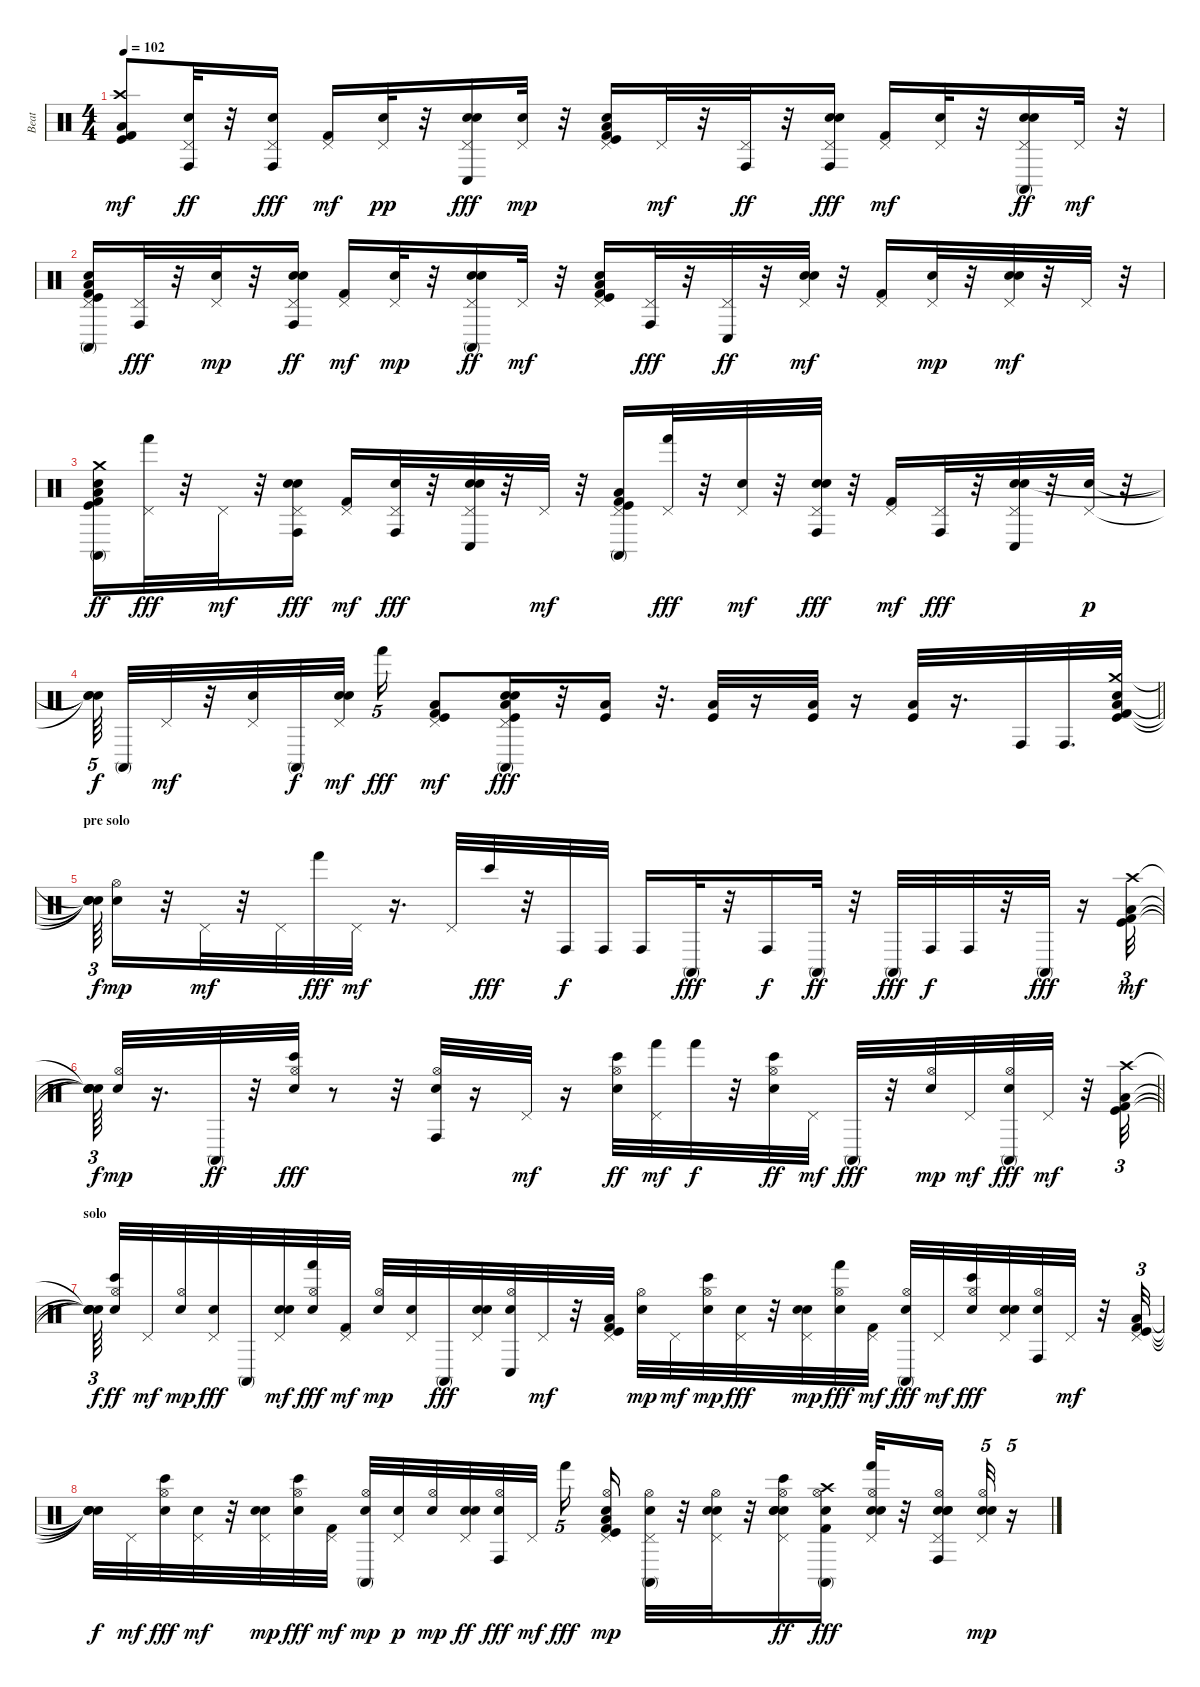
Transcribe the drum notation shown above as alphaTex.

\track ("Beat" "Beat") {instrument percussion}
\staff {score}
\articulation defaults
\ts (4 4)
\tempo 102
\clef neutral
\ks c
("Kick (hit) 2" "Kick (hit)" "Low Tom (hit)" "Crash high (hit)").8{dy mf} ("Pedal Hi-Hat (hit)" "Hand Clap (hit)" "Conga high (hit)").32{dy ff} r.32 ("Electric Snare (hit)" "Pedal Hi-Hat (hit)" "Conga high (hit)").16{dy fff} ("Kick (hit) 2" "Pedal Hi-Hat (hit)").16{dy mf} ("Pedal Hi-Hat (hit)" "Hand Clap (hit)").32{dy pp} r.32 ("Electric Snare (hit)" "Pedal Hi-Hat (hit)" "Hand Clap (hit)" "Conga low (hit)").16{dy fff} ("Pedal Hi-Hat (hit)" "Hand Clap (hit)").32{dy mp} r.32 ("Low Tom (hit)" "Kick (hit)" "Kick (hit) 2" "Pedal Hi-Hat (hit)" "Hand Clap (hit)").16 "Pedal Hi-Hat (hit)".32{dy mf} r.32 ("Pedal Hi-Hat (hit)" "Conga high (hit)").32{dy ff} r.32 ("Electric Snare (hit)" "Pedal Hi-Hat (hit)" "Hand Clap (hit)" "Conga high (hit)").16{dy fff} ("Kick (hit) 2" "Pedal Hi-Hat (hit)").16{dy mf} ("Pedal Hi-Hat (hit)" "Hand Clap (hit)").32 r.32 ("Electric Snare (hit)" "Pedal Hi-Hat (hit)" "Hand Clap (hit)" "Conga high (mute)").16{dy ff} "Pedal Hi-Hat (hit)".32{dy mf} r.32 |
("Low Tom (hit)" "Kick (hit)" "Kick (hit) 2" "Pedal Hi-Hat (hit)" "Hand Clap (hit)" "Conga high (mute)").16 ("Pedal Hi-Hat (hit)" "Conga high (hit)").32{dy fff} r.32 ("Pedal Hi-Hat (hit)" "Hand Clap (hit)").32{dy mp} r.32 ("Electric Snare (hit)" "Pedal Hi-Hat (hit)" "Hand Clap (hit)" "Conga high (hit)").16{dy ff} ("Kick (hit) 2" "Pedal Hi-Hat (hit)").16{dy mf} ("Pedal Hi-Hat (hit)" "Hand Clap (hit)").32{dy mp} r.32 ("Electric Snare (hit)" "Pedal Hi-Hat (hit)" "Hand Clap (hit)" "Conga high (mute)").16{dy ff} "Pedal Hi-Hat (hit)".32{dy mf} r.32 ("Low Tom (hit)" "Kick (hit)" "Kick (hit) 2" "Pedal Hi-Hat (hit)" "Hand Clap (hit)").16 ("Pedal Hi-Hat (hit)" "Conga high (hit)").32{dy fff} r.32 ("Pedal Hi-Hat (hit)" "Conga low (hit)").32{dy ff} r.32 ("Electric Snare (hit)" "Pedal Hi-Hat (hit)" "Hand Clap (hit)").32{dy mf} r.32 ("Kick (hit) 2" "Pedal Hi-Hat (hit)").16 ("Pedal Hi-Hat (hit)" "Hand Clap (hit)").32{dy mp} r.32 ("Electric Snare (hit)" "Pedal Hi-Hat (hit)" "Hand Clap (hit)").32{dy mf} r.32 "Pedal Hi-Hat (hit)".32 r.32 |
("Low Tom (hit)" "Kick (hit)" "Kick (hit) 2" "Crash medium (hit)" "Hand Clap (hit)" "Conga high (mute)").16{dy ff} ("Pedal Hi-Hat (hit)" "Hand (hit)").32{dy fff} r.32 "Pedal Hi-Hat (hit)".32{dy mf} r.32 ("Electric Snare (hit)" "Pedal Hi-Hat (hit)" "Hand Clap (hit)" "Conga high (hit)").16{dy fff} ("Kick (hit) 2" "Pedal Hi-Hat (hit)").16{dy mf} ("Pedal Hi-Hat (hit)" "Hand Clap (hit)" "Conga high (hit)").32{dy fff} r.32 ("Electric Snare (hit)" "Pedal Hi-Hat (hit)" "Hand Clap (hit)" "Conga low (hit)").32 r.32 "Pedal Hi-Hat (hit)".32{dy mf} r.32 ("Low Tom (hit)" "Kick (hit)" "Kick (hit) 2" "Pedal Hi-Hat (hit)" "Conga high (mute)").16 ("Pedal Hi-Hat (hit)" "Hand (hit)").32{dy fff} r.32 ("Pedal Hi-Hat (hit)" "Hand Clap (hit)").32{dy mf} r.32 ("Electric Snare (hit)" "Pedal Hi-Hat (hit)" "Hand Clap (hit)" "Conga high (hit)").32{dy fff} r.32 ("Kick (hit) 2" "Pedal Hi-Hat (hit)").16{dy mf} ("Pedal Hi-Hat (hit)" "Conga high (hit)").32{dy fff} r.32 ("Electric Snare (hit)" "Pedal Hi-Hat (hit)" "Hand Clap (hit)" "Conga low (hit)").32 r.32 ("Pedal Hi-Hat (hit)" "Hand Clap (hit)").32{dy p} r.32 |
\barLineRight lightlight
("Snare (hit)"{t} "Snare (hit)"{t} "Snare (hit)"{t}).64{tu (5 4) dy f beam splitsecondary} "Conga high (mute)".32 "Pedal Hi-Hat (hit)".32{dy mf} r.32 ("Pedal Hi-Hat (hit)" "Hand Clap (hit)").32 "Conga high (mute)".32{dy f} ("Electric Snare (hit)" "Pedal Hi-Hat (hit)" "Hand Clap (hit)").32{dy mf beam splitsecondary} "Hand (hit)".16{tu (5 4) dy fff} ("Kick (hit)" "Low Tom (hit)" "Kick (hit) 2" "Pedal Hi-Hat (hit)").8{dy mf} ("Kick (hit)" "Low Tom (hit)" "Electric Snare (hit)" "Pedal Hi-Hat (hit)" "Hand Clap (hit)" "Conga high (mute)").16{dy fff} r.32 ("Low Tom (hit)" "Kick (hit)").16 r.32{d} ("Low Tom (hit)" "Kick (hit)").32 r.16 ("Low Tom (hit)" "Kick (hit)").32 r.16 ("Low Tom (hit)" "Kick (hit)").32 r.16{d} "Conga high (hit)".32 "Conga high (hit)".32{d} ("Low Tom (hit)" "Kick (hit)" "Kick (hit) 2" "Crash medium (hit)" "Hand Clap (hit)").32 |
\section ("" "pre solo")
("Snare (hit)"{t} "Snare (hit)"{t} "Snare (hit)"{t} "Snare (hit)"{t}).64{tu (3 2) dy f volume 14} ("Hi-Hat (open)" "Metronome (bell)").16{dy mp} r.32 "Pedal Hi-Hat (hit)".32{dy mf} r.32 "Pedal Hi-Hat (hit)".32 "Hand (hit)".32{dy fff} "Pedal Hi-Hat (hit)".32{dy mf} r.16{d} "Pedal Hi-Hat (hit)".32 "Bongo High (hit)".32{dy fff} r.32 "Conga high (hit)".32{dy f} "Conga high (hit)".32 "Conga high (hit)".16 "Conga high (mute)".32{dy fff} r.32 "Conga high (hit)".16{dy f} "Conga high (mute)".32{dy ff} r.32 "Conga high (mute)".32{dy fff} "Conga high (hit)".32{dy f} "Conga high (hit)".32 r.32 "Conga high (mute)".32{dy fff} r.16 ("Low Tom (hit)" "Kick (hit)" "Kick (hit) 2" "Crash high (hit)").32{tu (3 2) dy mf} |
\barLineRight lightlight
("Snare (hit)"{t} "Snare (hit)"{t} "Snare (hit)"{t} "Snare (hit)"{t}).64{tu (3 2) dy f} ("Hi-Hat (open)" "Metronome (bell)").32{dy mp} r.16{d} "Conga high (mute)".32{dy ff} r.32 ("Hi-Hat (open)" "Metronome (bell)" "Bongo High (hit)").32{dy fff} r.8 r.32 ("Hi-Hat (open)" "Metronome (bell)" "Conga high (hit)").32 r.16 "Pedal Hi-Hat (hit)".32{dy mf} r.16 ("Hi-Hat (open)" "Metronome (bell)" "Bongo High (hit)").32{dy ff} ("Hand (hit)" "Pedal Hi-Hat (hit)").32{dy mf} "Hand (hit)".32{dy f} r.32 ("Hi-Hat (open)" "Metronome (bell)" "Bongo High (hit)").32{dy ff} "Pedal Hi-Hat (hit)".32{dy mf} "Conga high (mute)".32{dy fff} r.32 ("Hi-Hat (open)" "Metronome (bell)").32{dy mp} "Pedal Hi-Hat (hit)".32{dy mf} ("Hi-Hat (open)" "Metronome (bell)" "Conga high (mute)").32{dy fff} "Pedal Hi-Hat (hit)".32{dy mf} r.32 ("Low Tom (hit)" "Kick (hit)" "Kick (hit) 2" "Crash high (hit)").32{tu (3 2)} |
\section ("" "solo")
("Snare (hit)"{t} "Snare (hit)"{t} "Snare (hit)"{t} "Snare (hit)"{t}).64{tu (3 2) dy f volume 10 beam splitsecondary} ("Hi-Hat (open)" "Metronome (bell)" "Bongo High (hit)").32{dy ff} "Pedal Hi-Hat (hit)".32{dy mf} ("Hi-Hat (open)" "Metronome (bell)").32{dy mp} ("Pedal Hi-Hat (hit)" "Hand Clap (hit)").32{dy fff} "Conga high (mute)".32 ("Electric Snare (hit)" "Pedal Hi-Hat (hit)" "Hand Clap (hit)").32{dy mf} ("Hi-Hat (open)" "Metronome (bell)" "Hand (hit)").32{dy fff} ("Kick (hit) 2" "Pedal Hi-Hat (hit)").32{dy mf} ("Hi-Hat (open)" "Metronome (bell)").32{dy mp} ("Pedal Hi-Hat (hit)" "Hand Clap (hit)").32 "Conga high (mute)".32{dy fff} ("Electric Snare (hit)" "Pedal Hi-Hat (hit)" "Hand Clap (hit)").32 ("Hi-Hat (open)" "Metronome (bell)" "Conga low (hit)").32 "Pedal Hi-Hat (hit)".32{dy mf} r.32 ("Kick (hit)" "Low Tom (hit)" "Kick (hit) 2" "Pedal Hi-Hat (hit)").32 ("Hi-Hat (open)" "Metronome (bell)").32{dy mp} "Pedal Hi-Hat (hit)".32{dy mf} ("Hi-Hat (open)" "Metronome (bell)" "Bongo High (hit)").32{dy mp} ("Pedal Hi-Hat (hit)" "Hand Clap (hit)").32{dy fff} r.32 ("Electric Snare (hit)" "Pedal Hi-Hat (hit)" "Hand Clap (hit)").32{dy mp} ("Hi-Hat (open)" "Metronome (bell)" "Hand (hit)").32{dy fff} ("Kick (hit) 2" "Pedal Hi-Hat (hit)").32{dy mf} ("Hi-Hat (open)" "Metronome (bell)" "Conga high (mute)").32{dy fff} "Pedal Hi-Hat (hit)".32{dy mf} ("Hi-Hat (open)" "Metronome (bell)" "Bongo High (hit)").32{dy fff} ("Electric Snare (hit)" "Pedal Hi-Hat (hit)" "Hand Clap (hit)").32 ("Hi-Hat (open)" "Metronome (bell)" "Conga high (hit)").32 "Pedal Hi-Hat (hit)".32{dy mf} r.32 ("Low Tom (hit)" "Kick (hit)" "Kick (hit) 2" "Pedal Hi-Hat (hit)").32{tu (3 2)} |
("Snare (hit)"{t} "Snare (hit)"{t} "Snare (hit)"{t} "Snare (hit)"{t}).32{dy f} "Pedal Hi-Hat (hit)".32{dy mf} ("Hi-Hat (open)" "Metronome (bell)" "Bongo High (hit)").32{dy fff} ("Pedal Hi-Hat (hit)" "Hand Clap (hit)").32{dy mf} r.32 ("Electric Snare (hit)" "Pedal Hi-Hat (hit)" "Hand Clap (hit)").32{dy mp} ("Hi-Hat (open)" "Metronome (bell)" "Bongo High (hit)").32{dy fff} ("Kick (hit) 2" "Pedal Hi-Hat (hit)").32{dy mf} ("Hi-Hat (open)" "Metronome (bell)" "Conga high (mute)").32{dy mp} ("Pedal Hi-Hat (hit)" "Hand Clap (hit)").32{dy p} ("Hi-Hat (open)" "Metronome (bell)").32{dy mp} ("Electric Snare (hit)" "Pedal Hi-Hat (hit)" "Hand Clap (hit)").32{dy ff} ("Hi-Hat (open)" "Metronome (bell)" "Conga high (hit)").32{dy fff} "Pedal Hi-Hat (hit)".32{dy mf beam splitsecondary} "Hand (hit)".16{tu (5 4) dy fff} ("Kick (hit)" "Low Tom (hit)" "Kick (hit) 2" "Pedal Hi-Hat (hit)" "Hi-Hat (open)" "Metronome (bell)").16{dy mp} ("Pedal Hi-Hat (hit)" "Hi-Hat (open)" "Metronome (bell)" "Conga high (mute)").32 r.32 ("Pedal Hi-Hat (hit)" "Hand Clap (hit)" "Hi-Hat (open)" "Metronome (bell)").32 r.32 ("Electric Snare (hit)" "Pedal Hi-Hat (hit)" "Hand Clap (hit)" "Hi-Hat (open)" "Metronome (bell)" "Bongo High (hit)").16{dy ff} ("Kick (hit) 2" "Crash high (hit)" "Hi-Hat (open)" "Metronome (bell)" "Conga high (mute)").16{dy fff} ("Pedal Hi-Hat (hit)" "Hand Clap (hit)" "Hi-Hat (open)" "Metronome (bell)" "Hand (hit)").32 r.32 ("Electric Snare (hit)" "Pedal Hi-Hat (hit)" "Hand Clap (hit)" "Hi-Hat (open)" "Metronome (bell)" "Conga high (hit)").16 ("Pedal Hi-Hat (hit)" "Hand Clap (hit)" "Hi-Hat (open)" "Metronome (bell)").32{tu (5 4) dy mp} r.16{tu (5 4)}
